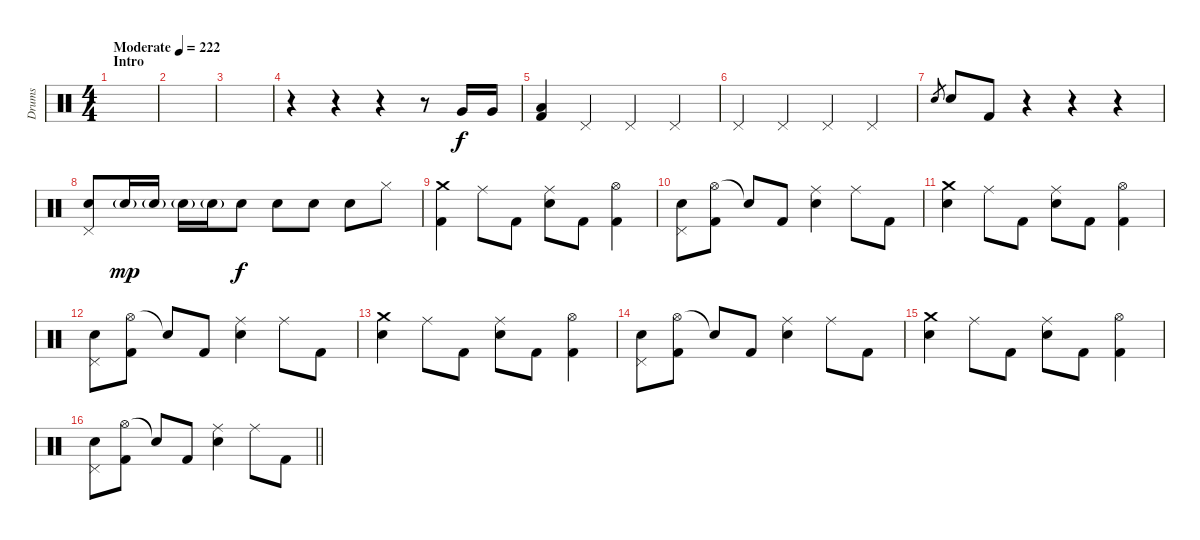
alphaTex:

\track ("Drums" "Drums") {instrument percussion}
\staff {score}
\articulation defaults
\ts (4 4)
\section ("" "Intro")
\tempo (222 "Moderate")
\clef neutral
\ks c
|
|
|
r.4 r.4 r.4 r.8 "Very Low Tom (hit)".16 "Very Low Tom (hit)".16 |
("Low Floor Tom (hit)" "Kick (hit) 2").4 "Pedal Hi-Hat (hit)".4 "Pedal Hi-Hat (hit)".4 "Pedal Hi-Hat (hit)".4 |
"Pedal Hi-Hat (hit)".4 "Pedal Hi-Hat (hit)".4 "Pedal Hi-Hat (hit)".4 "Pedal Hi-Hat (hit)".4 |
"Electric Snare (hit)".8{gr} "Electric Snare (hit)".8 "Kick (hit) 2".8 r.4 r.4 r.4 |
("Pedal Hi-Hat (hit)" "Electric Snare (hit)").8 "Electric Snare (hit)"{g}.16{dy mp} "Electric Snare (hit)"{g}.16 "Electric Snare (hit)"{g}.16 "Electric Snare (hit)"{g}.16 "Electric Snare (hit)".8{dy f} "Electric Snare (hit)".8 "Electric Snare (hit)".8 "Electric Snare (hit)".8 "Hi-Hat (closed)".8 |
("Crash medium (hit)" "Kick (hit) 2").4 "Ride (middle)".8 "Kick (hit) 2".8 ("Ride (middle)" "Electric Snare (hit)").8 "Kick (hit) 2".8 ("Hi-Hat (open)" "Kick (hit) 2").4 |
("Pedal Hi-Hat (hit)" "Electric Snare (hit)").8 ("Hi-Hat (open)" "Kick (hit) 2").8 "Snare (hit)"{t}.8 "Kick (hit) 2".8 ("Ride (middle)" "Electric Snare (hit)").4 "Ride (middle)".8 "Kick (hit) 2".8 |
("Crash medium (hit)" "Electric Snare (hit)").4 "Ride (middle)".8 "Kick (hit) 2".8 ("Ride (middle)" "Electric Snare (hit)").8 "Kick (hit) 2".8 ("Hi-Hat (open)" "Kick (hit) 2").4 |
("Pedal Hi-Hat (hit)" "Electric Snare (hit)").8 ("Hi-Hat (open)" "Kick (hit) 2").8 "Snare (hit)"{t}.8 "Kick (hit) 2".8 ("Ride (middle)" "Electric Snare (hit)").4 "Ride (middle)".8 "Kick (hit) 2".8 |
("Crash medium (hit)" "Electric Snare (hit)").4 "Ride (middle)".8 "Kick (hit) 2".8 ("Ride (middle)" "Electric Snare (hit)").8 "Kick (hit) 2".8 ("Hi-Hat (open)" "Kick (hit) 2").4 |
("Pedal Hi-Hat (hit)" "Electric Snare (hit)").8 ("Hi-Hat (open)" "Kick (hit) 2").8 "Snare (hit)"{t}.8 "Kick (hit) 2".8 ("Ride (middle)" "Electric Snare (hit)").4 "Ride (middle)".8 "Kick (hit) 2".8 |
("Crash medium (hit)" "Electric Snare (hit)").4 "Ride (middle)".8 "Kick (hit) 2".8 ("Ride (middle)" "Electric Snare (hit)").8 "Kick (hit) 2".8 ("Hi-Hat (open)" "Kick (hit) 2").4 |
\barLineRight lightlight
("Pedal Hi-Hat (hit)" "Electric Snare (hit)").8 ("Hi-Hat (open)" "Kick (hit) 2").8 "Snare (hit)"{t}.8 "Kick (hit) 2".8 ("Ride (middle)" "Electric Snare (hit)").4 "Ride (middle)".8 "Kick (hit) 2".8
